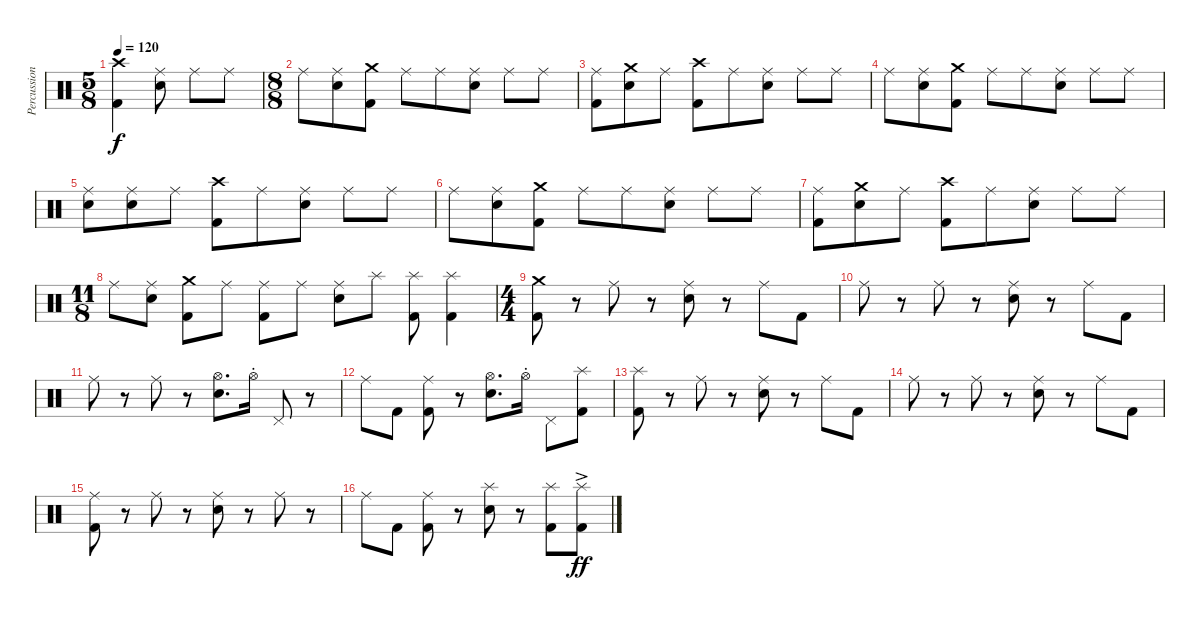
\track ("Percussion" "Percussion") {instrument percussion}
\staff {score}
\articulation defaults
\ts (5 8)
\tempo 120
\clef neutral
\ks c
("Crash high (hit)" "Kick (hit) 2").4{dy f} ("Ride (middle)" "Electric Snare (hit)").8 "Ride (middle)".8 "Ride (middle)".8 |
\ts (8 8)
"Ride (middle)".8 ("Ride (middle)" "Electric Snare (hit)").8 ("Crash medium (hit)" "Kick (hit) 2").8 "Ride (middle)".8 "Ride (middle)".8 ("Ride (middle)" "Electric Snare (hit)").8 "Ride (middle)".8 "Ride (middle)".8 |
("Ride (middle)" "Kick (hit) 2").8 ("Crash medium (hit)" "Electric Snare (hit)").8 "Ride (middle)".8 ("Crash high (hit)" "Kick (hit) 2").8 "Ride (middle)".8 ("Ride (middle)" "Electric Snare (hit)").8 "Ride (middle)".8 "Ride (middle)".8 |
"Ride (middle)".8 ("Ride (middle)" "Electric Snare (hit)").8 ("Crash medium (hit)" "Kick (hit) 2").8 "Ride (middle)".8 "Ride (middle)".8 ("Ride (middle)" "Electric Snare (hit)").8 "Ride (middle)".8 "Ride (middle)".8 |
("Ride (middle)" "Electric Snare (hit)").8 ("Ride (middle)" "Electric Snare (hit)").8 "Ride (middle)".8 ("Crash high (hit)" "Kick (hit) 2").8 "Ride (middle)".8 ("Ride (middle)" "Electric Snare (hit)").8 "Ride (middle)".8 "Ride (middle)".8 |
"Ride (middle)".8 ("Ride (middle)" "Electric Snare (hit)").8 ("Crash medium (hit)" "Kick (hit) 2").8 "Ride (middle)".8 "Ride (middle)".8 ("Ride (middle)" "Electric Snare (hit)").8 "Ride (middle)".8 "Ride (middle)".8 |
("Ride (middle)" "Kick (hit) 2").8 ("Crash medium (hit)" "Electric Snare (hit)").8 "Ride (middle)".8 ("Crash high (hit)" "Kick (hit) 2").8 "Ride (middle)".8 ("Ride (middle)" "Electric Snare (hit)").8 "Ride (middle)".8 "Ride (middle)".8 |
\ts (11 8)
"Ride (middle)".8 ("Ride (middle)" "Electric Snare (hit)").8 ("Crash medium (hit)" "Kick (hit) 2").8 "Ride (middle)".8 ("Ride (middle)" "Kick (hit) 2").8 "Ride (middle)".8 ("Ride (middle)" "Electric Snare (hit)").8 "Splash (hit)".8 ("Splash (hit)" "Kick (hit) 2").8 ("Splash (hit)" "Kick (hit) 2").4 |
\ts (4 4)
("Kick (hit) 2" "Crash medium (hit)").8 r.8 "Ride (middle)".8 r.8 ("Electric Snare (hit)" "Ride (middle)").8 r.8 "Ride (middle)".8 "Kick (hit) 2".8 |
"Ride (middle)".8 r.8 "Ride (middle)".8 r.8 ("Electric Snare (hit)" "Ride (middle)").8 r.8 "Ride (middle)".8 "Kick (hit) 2".8 |
"Ride (middle)".8 r.8 "Ride (middle)".8 r.8 ("Electric Snare (hit)" "Hi-Hat (open)").8{d} "Hi-Hat (open)"{st}.16 "Pedal Hi-Hat (hit)".8 r.8 |
"Ride (middle)".8 "Kick (hit) 2".8 ("Kick (hit) 2" "Ride (middle)").8 r.8 ("Hi-Hat (open)" "Electric Snare (hit)").8{d} "Hi-Hat (open)"{st}.16 "Pedal Hi-Hat (hit)".8 ("Splash (hit)" "Kick (hit) 2").8 |
("Kick (hit) 2" "Splash (hit)").8 r.8 "Ride (middle)".8 r.8 ("Electric Snare (hit)" "Ride (middle)").8 r.8 "Ride (middle)".8 "Kick (hit) 2".8 |
"Ride (middle)".8 r.8 "Ride (middle)".8 r.8 ("Electric Snare (hit)" "Ride (middle)").8 r.8 "Ride (middle)".8 "Kick (hit) 2".8 |
("Kick (hit) 2" "Ride (middle)").8 r.8 "Ride (middle)".8 r.8 ("Electric Snare (hit)" "Ride (middle)").8 r.8 "Ride (middle)".8 r.8 |
"Ride (middle)".8 "Kick (hit) 2".8 ("Kick (hit) 2" "Ride (middle)").8 r.8 ("Splash (hit)" "Electric Snare (hit)").8 r.8 ("Splash (hit)" "Kick (hit) 2").8 ("Splash (hit)" "Kick (hit) 2"{ac}).8{dy ff}
